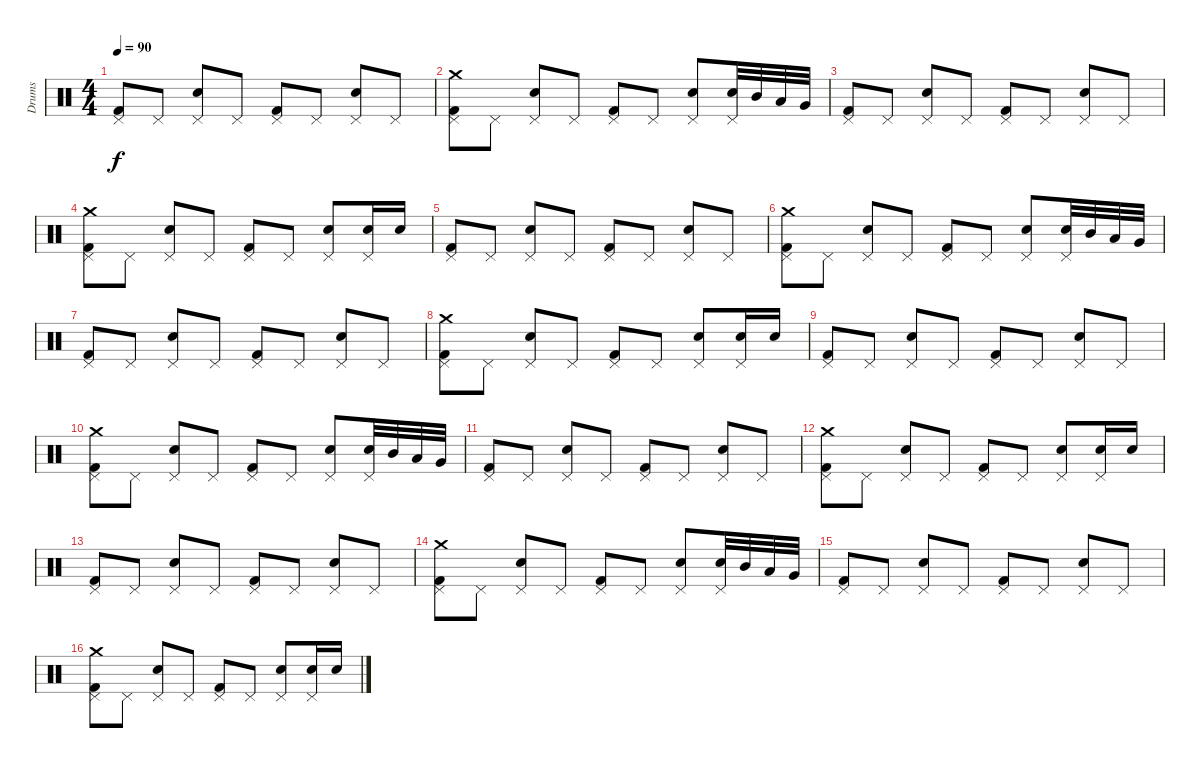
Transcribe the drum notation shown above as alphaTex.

\track ("Drums" "Drums") {instrument percussion}
\staff {score}
\articulation defaults
\ts (4 4)
\tempo 90
\clef neutral
\ks c
("Kick (hit) 2" "Pedal Hi-Hat (hit)").8{dy f} "Pedal Hi-Hat (hit)".8 ("Pedal Hi-Hat (hit)" "Electric Snare (hit)").8 "Pedal Hi-Hat (hit)".8 ("Pedal Hi-Hat (hit)" "Kick (hit) 2").8 "Pedal Hi-Hat (hit)".8 ("Pedal Hi-Hat (hit)" "Electric Snare (hit)").8 "Pedal Hi-Hat (hit)".8 |
("Pedal Hi-Hat (hit)" "Kick (hit) 2" "Crash medium (hit)").8 "Pedal Hi-Hat (hit)".8 ("Electric Snare (hit)" "Pedal Hi-Hat (hit)").8 "Pedal Hi-Hat (hit)".8 ("Pedal Hi-Hat (hit)" "Kick (hit) 2").8 "Pedal Hi-Hat (hit)".8 ("Pedal Hi-Hat (hit)" "Electric Snare (hit)").8 ("Pedal Hi-Hat (hit)" "Electric Snare (hit)").32 "Mid Tom (hit)".32 "Low Tom (hit)".32 "Very Low Tom (hit)".32 |
("Pedal Hi-Hat (hit)" "Kick (hit) 2").8 "Pedal Hi-Hat (hit)".8 ("Pedal Hi-Hat (hit)" "Electric Snare (hit)").8 "Pedal Hi-Hat (hit)".8 ("Kick (hit) 2" "Pedal Hi-Hat (hit)").8 "Pedal Hi-Hat (hit)".8 ("Electric Snare (hit)" "Pedal Hi-Hat (hit)").8 "Pedal Hi-Hat (hit)".8 |
("Kick (hit) 2" "Pedal Hi-Hat (hit)" "Crash medium (hit)").8 "Pedal Hi-Hat (hit)".8 ("Electric Snare (hit)" "Pedal Hi-Hat (hit)").8 "Pedal Hi-Hat (hit)".8 ("Kick (hit) 2" "Pedal Hi-Hat (hit)").8 "Pedal Hi-Hat (hit)".8 ("Electric Snare (hit)" "Pedal Hi-Hat (hit)").8 ("Electric Snare (hit)" "Pedal Hi-Hat (hit)").16 "Electric Snare (hit)".16 |
("Kick (hit) 2" "Pedal Hi-Hat (hit)").8 "Pedal Hi-Hat (hit)".8 ("Pedal Hi-Hat (hit)" "Electric Snare (hit)").8 "Pedal Hi-Hat (hit)".8 ("Pedal Hi-Hat (hit)" "Kick (hit) 2").8 "Pedal Hi-Hat (hit)".8 ("Pedal Hi-Hat (hit)" "Electric Snare (hit)").8 "Pedal Hi-Hat (hit)".8 |
("Pedal Hi-Hat (hit)" "Kick (hit) 2" "Crash medium (hit)").8 "Pedal Hi-Hat (hit)".8 ("Electric Snare (hit)" "Pedal Hi-Hat (hit)").8 "Pedal Hi-Hat (hit)".8 ("Pedal Hi-Hat (hit)" "Kick (hit) 2").8 "Pedal Hi-Hat (hit)".8 ("Pedal Hi-Hat (hit)" "Electric Snare (hit)").8 ("Pedal Hi-Hat (hit)" "Electric Snare (hit)").32 "Mid Tom (hit)".32 "Low Tom (hit)".32 "Very Low Tom (hit)".32 |
("Pedal Hi-Hat (hit)" "Kick (hit) 2").8 "Pedal Hi-Hat (hit)".8 ("Pedal Hi-Hat (hit)" "Electric Snare (hit)").8 "Pedal Hi-Hat (hit)".8 ("Kick (hit) 2" "Pedal Hi-Hat (hit)").8 "Pedal Hi-Hat (hit)".8 ("Electric Snare (hit)" "Pedal Hi-Hat (hit)").8 "Pedal Hi-Hat (hit)".8 |
("Kick (hit) 2" "Pedal Hi-Hat (hit)" "Crash medium (hit)").8 "Pedal Hi-Hat (hit)".8 ("Electric Snare (hit)" "Pedal Hi-Hat (hit)").8 "Pedal Hi-Hat (hit)".8 ("Kick (hit) 2" "Pedal Hi-Hat (hit)").8 "Pedal Hi-Hat (hit)".8 ("Electric Snare (hit)" "Pedal Hi-Hat (hit)").8 ("Electric Snare (hit)" "Pedal Hi-Hat (hit)").16 "Electric Snare (hit)".16 |
("Kick (hit) 2" "Pedal Hi-Hat (hit)").8 "Pedal Hi-Hat (hit)".8 ("Pedal Hi-Hat (hit)" "Electric Snare (hit)").8 "Pedal Hi-Hat (hit)".8 ("Pedal Hi-Hat (hit)" "Kick (hit) 2").8 "Pedal Hi-Hat (hit)".8 ("Pedal Hi-Hat (hit)" "Electric Snare (hit)").8 "Pedal Hi-Hat (hit)".8 |
("Pedal Hi-Hat (hit)" "Kick (hit) 2" "Crash medium (hit)").8 "Pedal Hi-Hat (hit)".8 ("Electric Snare (hit)" "Pedal Hi-Hat (hit)").8 "Pedal Hi-Hat (hit)".8 ("Pedal Hi-Hat (hit)" "Kick (hit) 2").8 "Pedal Hi-Hat (hit)".8 ("Pedal Hi-Hat (hit)" "Electric Snare (hit)").8 ("Pedal Hi-Hat (hit)" "Electric Snare (hit)").32 "Mid Tom (hit)".32 "Low Tom (hit)".32 "Very Low Tom (hit)".32 |
("Pedal Hi-Hat (hit)" "Kick (hit) 2").8 "Pedal Hi-Hat (hit)".8 ("Pedal Hi-Hat (hit)" "Electric Snare (hit)").8 "Pedal Hi-Hat (hit)".8 ("Kick (hit) 2" "Pedal Hi-Hat (hit)").8 "Pedal Hi-Hat (hit)".8 ("Electric Snare (hit)" "Pedal Hi-Hat (hit)").8 "Pedal Hi-Hat (hit)".8 |
("Kick (hit) 2" "Pedal Hi-Hat (hit)" "Crash medium (hit)").8 "Pedal Hi-Hat (hit)".8 ("Electric Snare (hit)" "Pedal Hi-Hat (hit)").8 "Pedal Hi-Hat (hit)".8 ("Kick (hit) 2" "Pedal Hi-Hat (hit)").8 "Pedal Hi-Hat (hit)".8 ("Electric Snare (hit)" "Pedal Hi-Hat (hit)").8 ("Electric Snare (hit)" "Pedal Hi-Hat (hit)").16 "Electric Snare (hit)".16 |
("Kick (hit) 2" "Pedal Hi-Hat (hit)").8 "Pedal Hi-Hat (hit)".8 ("Pedal Hi-Hat (hit)" "Electric Snare (hit)").8 "Pedal Hi-Hat (hit)".8 ("Pedal Hi-Hat (hit)" "Kick (hit) 2").8 "Pedal Hi-Hat (hit)".8 ("Pedal Hi-Hat (hit)" "Electric Snare (hit)").8 "Pedal Hi-Hat (hit)".8 |
("Pedal Hi-Hat (hit)" "Kick (hit) 2" "Crash medium (hit)").8 "Pedal Hi-Hat (hit)".8 ("Electric Snare (hit)" "Pedal Hi-Hat (hit)").8 "Pedal Hi-Hat (hit)".8 ("Pedal Hi-Hat (hit)" "Kick (hit) 2").8 "Pedal Hi-Hat (hit)".8 ("Pedal Hi-Hat (hit)" "Electric Snare (hit)").8 ("Pedal Hi-Hat (hit)" "Electric Snare (hit)").32 "Mid Tom (hit)".32 "Low Tom (hit)".32 "Very Low Tom (hit)".32 |
("Pedal Hi-Hat (hit)" "Kick (hit) 2").8 "Pedal Hi-Hat (hit)".8 ("Pedal Hi-Hat (hit)" "Electric Snare (hit)").8 "Pedal Hi-Hat (hit)".8 ("Kick (hit) 2" "Pedal Hi-Hat (hit)").8 "Pedal Hi-Hat (hit)".8 ("Electric Snare (hit)" "Pedal Hi-Hat (hit)").8 "Pedal Hi-Hat (hit)".8 |
("Kick (hit) 2" "Pedal Hi-Hat (hit)" "Crash medium (hit)").8 "Pedal Hi-Hat (hit)".8 ("Electric Snare (hit)" "Pedal Hi-Hat (hit)").8 "Pedal Hi-Hat (hit)".8 ("Kick (hit) 2" "Pedal Hi-Hat (hit)").8 "Pedal Hi-Hat (hit)".8 ("Electric Snare (hit)" "Pedal Hi-Hat (hit)").8 ("Electric Snare (hit)" "Pedal Hi-Hat (hit)").16 "Electric Snare (hit)".16
